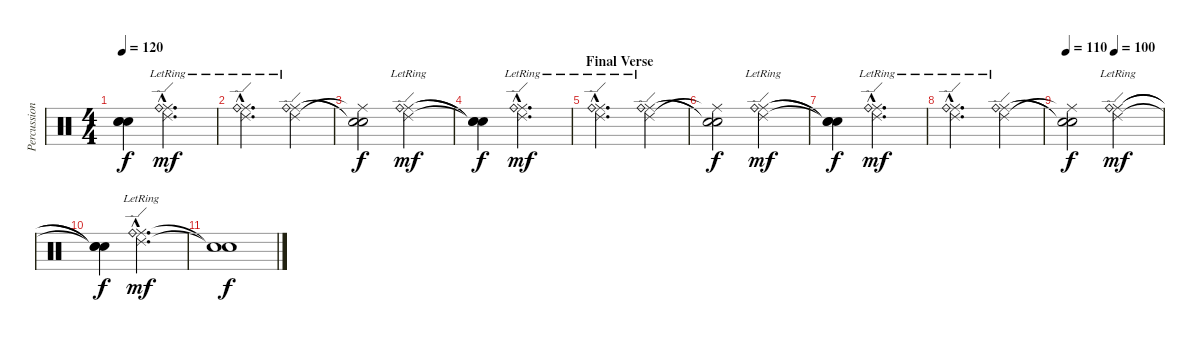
\track ("Percussion" "Percussion") {instrument percussion}
\staff {score}
\articulation defaults
\ts (4 4)
\tempo 120
\clef neutral
\ks c
("Snare (hit)"{t} "Snare (hit)"{t} "Snare (hit)"{t}).4{dy f} ("Ride (edge) 2"{hac lr} "Ride (middle)"{hac} "Ride (bell)"{hac}).2{d dy mf} |
("Ride (edge) 2"{hac lr} "Ride (middle)"{hac} "Ride (bell)"{hac}).2{d} ("Ride (edge) 2"{lr} "Ride (middle)" "Ride (bell)").4 |
("Ride (middle)"{t} "Snare (hit)"{t} "Snare (hit)"{t}).2{dy f} ("Ride (edge) 2"{lr} "Ride (middle)" "Ride (bell)").2{dy mf} |
("Snare (hit)"{t} "Snare (hit)"{t} "Snare (hit)"{t}).4{dy f} ("Ride (edge) 2"{hac lr} "Ride (middle)"{hac} "Ride (bell)"{hac}).2{d dy mf} |
\section ("" "Final Verse")
("Ride (edge) 2"{hac lr} "Ride (middle)"{hac} "Ride (bell)"{hac}).2{d} ("Ride (edge) 2"{lr} "Ride (middle)" "Ride (bell)").4 |
("Ride (middle)"{t} "Snare (hit)"{t} "Snare (hit)"{t}).2{dy f} ("Ride (edge) 2"{lr} "Ride (middle)" "Ride (bell)").2{dy mf} |
("Snare (hit)"{t} "Snare (hit)"{t} "Snare (hit)"{t}).4{dy f} ("Ride (edge) 2"{hac lr} "Ride (middle)"{hac} "Ride (bell)"{hac}).2{d dy mf} |
("Ride (edge) 2"{hac lr} "Ride (middle)"{hac} "Ride (bell)"{hac}).2{d} ("Ride (edge) 2"{lr} "Ride (middle)" "Ride (bell)").4 |
\tempo 110
\tempo (100 0.5)
("Ride (middle)"{t} "Snare (hit)"{t} "Snare (hit)"{t}).2{dy f} ("Ride (edge) 2"{lr} "Ride (middle)" "Ride (bell)").2{dy mf} |
("Snare (hit)"{t} "Snare (hit)"{t} "Snare (hit)"{t}).4{dy f} ("Ride (edge) 2"{hac lr} "Ride (middle)"{hac} "Ride (bell)"{hac}).2{d dy mf} |
("Snare (hit)"{t} "Snare (hit)"{t}).1{dy f}
